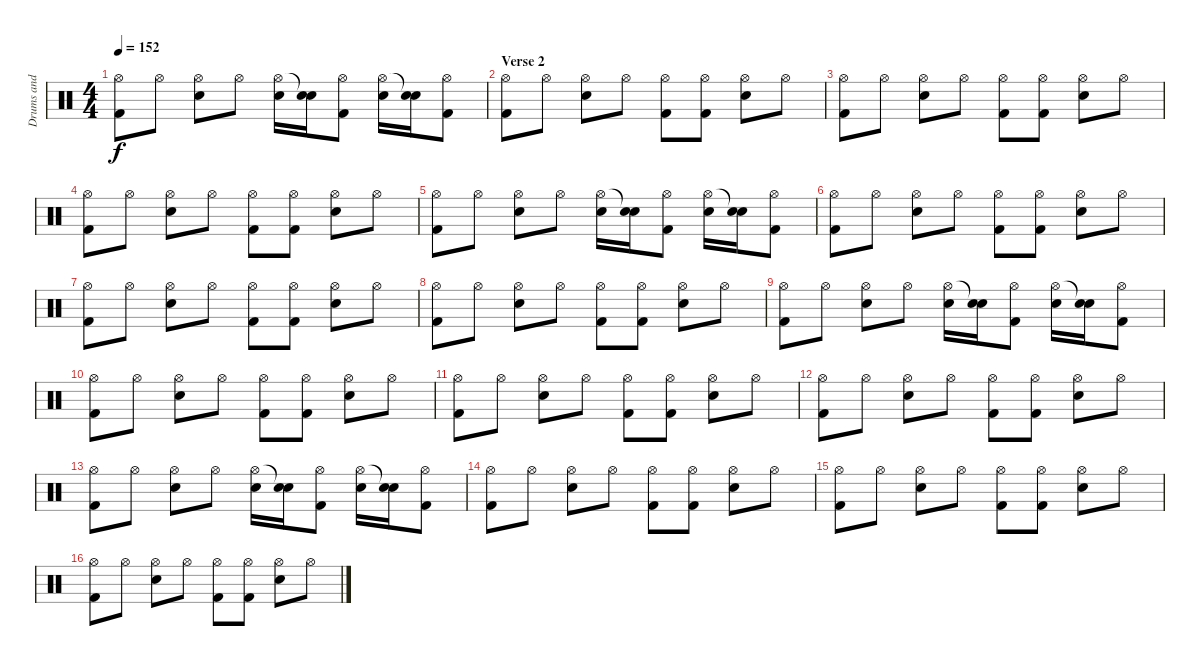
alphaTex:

\track ("Drums and Percussion" "Drums and ") {instrument percussion}
\staff {score}
\articulation defaults
\ts (4 4)
\tempo 152
\clef neutral
\ks c
("Hi-Hat (open)" "Kick (hit) 2").8{dy f} "Hi-Hat (open)".8 ("Hi-Hat (open)" "Electric Snare (hit)").8 "Hi-Hat (open)".8 ("Hi-Hat (open)" "Electric Snare (hit)").16 ("Snare (hit)"{t} "Electric Snare (hit)").16 ("Hi-Hat (open)" "Kick (hit) 2").8 ("Hi-Hat (open)" "Electric Snare (hit)").16 ("Snare (hit)"{t} "Electric Snare (hit)").16 ("Hi-Hat (open)" "Kick (hit) 2").8 |
\section ("" "Verse 2")
("Hi-Hat (open)" "Kick (hit) 2").8 "Hi-Hat (open)".8 ("Hi-Hat (open)" "Electric Snare (hit)").8 "Hi-Hat (open)".8 ("Hi-Hat (open)" "Kick (hit) 2").8 ("Hi-Hat (open)" "Kick (hit) 2").8 ("Hi-Hat (open)" "Electric Snare (hit)").8 "Hi-Hat (open)".8 |
("Hi-Hat (open)" "Kick (hit) 2").8 "Hi-Hat (open)".8 ("Hi-Hat (open)" "Electric Snare (hit)").8 "Hi-Hat (open)".8 ("Hi-Hat (open)" "Kick (hit) 2").8 ("Hi-Hat (open)" "Kick (hit) 2").8 ("Hi-Hat (open)" "Electric Snare (hit)").8 "Hi-Hat (open)".8 |
("Hi-Hat (open)" "Kick (hit) 2").8 "Hi-Hat (open)".8 ("Hi-Hat (open)" "Electric Snare (hit)").8 "Hi-Hat (open)".8 ("Hi-Hat (open)" "Kick (hit) 2").8 ("Hi-Hat (open)" "Kick (hit) 2").8 ("Hi-Hat (open)" "Electric Snare (hit)").8 "Hi-Hat (open)".8 |
("Hi-Hat (open)" "Kick (hit) 2").8 "Hi-Hat (open)".8 ("Hi-Hat (open)" "Electric Snare (hit)").8 "Hi-Hat (open)".8 ("Hi-Hat (open)" "Electric Snare (hit)").16 ("Snare (hit)"{t} "Electric Snare (hit)").16 ("Hi-Hat (open)" "Kick (hit) 2").8 ("Hi-Hat (open)" "Electric Snare (hit)").16 ("Snare (hit)"{t} "Electric Snare (hit)").16 ("Hi-Hat (open)" "Kick (hit) 2").8 |
("Hi-Hat (open)" "Kick (hit) 2").8 "Hi-Hat (open)".8 ("Hi-Hat (open)" "Electric Snare (hit)").8 "Hi-Hat (open)".8 ("Hi-Hat (open)" "Kick (hit) 2").8 ("Hi-Hat (open)" "Kick (hit) 2").8 ("Hi-Hat (open)" "Electric Snare (hit)").8 "Hi-Hat (open)".8 |
("Hi-Hat (open)" "Kick (hit) 2").8 "Hi-Hat (open)".8 ("Hi-Hat (open)" "Electric Snare (hit)").8 "Hi-Hat (open)".8 ("Hi-Hat (open)" "Kick (hit) 2").8 ("Hi-Hat (open)" "Kick (hit) 2").8 ("Hi-Hat (open)" "Electric Snare (hit)").8 "Hi-Hat (open)".8 |
("Hi-Hat (open)" "Kick (hit) 2").8 "Hi-Hat (open)".8 ("Hi-Hat (open)" "Electric Snare (hit)").8 "Hi-Hat (open)".8 ("Hi-Hat (open)" "Kick (hit) 2").8 ("Hi-Hat (open)" "Kick (hit) 2").8 ("Hi-Hat (open)" "Electric Snare (hit)").8 "Hi-Hat (open)".8 |
("Hi-Hat (open)" "Kick (hit) 2").8 "Hi-Hat (open)".8 ("Hi-Hat (open)" "Electric Snare (hit)").8 "Hi-Hat (open)".8 ("Hi-Hat (open)" "Electric Snare (hit)").16 ("Snare (hit)"{t} "Electric Snare (hit)").16 ("Hi-Hat (open)" "Kick (hit) 2").8 ("Hi-Hat (open)" "Electric Snare (hit)").16 ("Snare (hit)"{t} "Electric Snare (hit)").16 ("Hi-Hat (open)" "Kick (hit) 2").8 |
("Hi-Hat (open)" "Kick (hit) 2").8 "Hi-Hat (open)".8 ("Hi-Hat (open)" "Electric Snare (hit)").8 "Hi-Hat (open)".8 ("Hi-Hat (open)" "Kick (hit) 2").8 ("Hi-Hat (open)" "Kick (hit) 2").8 ("Hi-Hat (open)" "Electric Snare (hit)").8 "Hi-Hat (open)".8 |
("Hi-Hat (open)" "Kick (hit) 2").8 "Hi-Hat (open)".8 ("Hi-Hat (open)" "Electric Snare (hit)").8 "Hi-Hat (open)".8 ("Hi-Hat (open)" "Kick (hit) 2").8 ("Hi-Hat (open)" "Kick (hit) 2").8 ("Hi-Hat (open)" "Electric Snare (hit)").8 "Hi-Hat (open)".8 |
("Hi-Hat (open)" "Kick (hit) 2").8 "Hi-Hat (open)".8 ("Hi-Hat (open)" "Electric Snare (hit)").8 "Hi-Hat (open)".8 ("Hi-Hat (open)" "Kick (hit) 2").8 ("Hi-Hat (open)" "Kick (hit) 2").8 ("Hi-Hat (open)" "Electric Snare (hit)").8 "Hi-Hat (open)".8 |
("Hi-Hat (open)" "Kick (hit) 2").8 "Hi-Hat (open)".8 ("Hi-Hat (open)" "Electric Snare (hit)").8 "Hi-Hat (open)".8 ("Hi-Hat (open)" "Electric Snare (hit)").16 ("Snare (hit)"{t} "Electric Snare (hit)").16 ("Hi-Hat (open)" "Kick (hit) 2").8 ("Hi-Hat (open)" "Electric Snare (hit)").16 ("Snare (hit)"{t} "Electric Snare (hit)").16 ("Hi-Hat (open)" "Kick (hit) 2").8 |
("Hi-Hat (open)" "Kick (hit) 2").8 "Hi-Hat (open)".8 ("Hi-Hat (open)" "Electric Snare (hit)").8 "Hi-Hat (open)".8 ("Hi-Hat (open)" "Kick (hit) 2").8 ("Hi-Hat (open)" "Kick (hit) 2").8 ("Hi-Hat (open)" "Electric Snare (hit)").8 "Hi-Hat (open)".8 |
("Hi-Hat (open)" "Kick (hit) 2").8 "Hi-Hat (open)".8 ("Hi-Hat (open)" "Electric Snare (hit)").8 "Hi-Hat (open)".8 ("Hi-Hat (open)" "Kick (hit) 2").8 ("Hi-Hat (open)" "Kick (hit) 2").8 ("Hi-Hat (open)" "Electric Snare (hit)").8 "Hi-Hat (open)".8 |
("Hi-Hat (open)" "Kick (hit) 2").8 "Hi-Hat (open)".8 ("Hi-Hat (open)" "Electric Snare (hit)").8 "Hi-Hat (open)".8 ("Hi-Hat (open)" "Kick (hit) 2").8 ("Hi-Hat (open)" "Kick (hit) 2").8 ("Hi-Hat (open)" "Electric Snare (hit)").8 "Hi-Hat (open)".8
